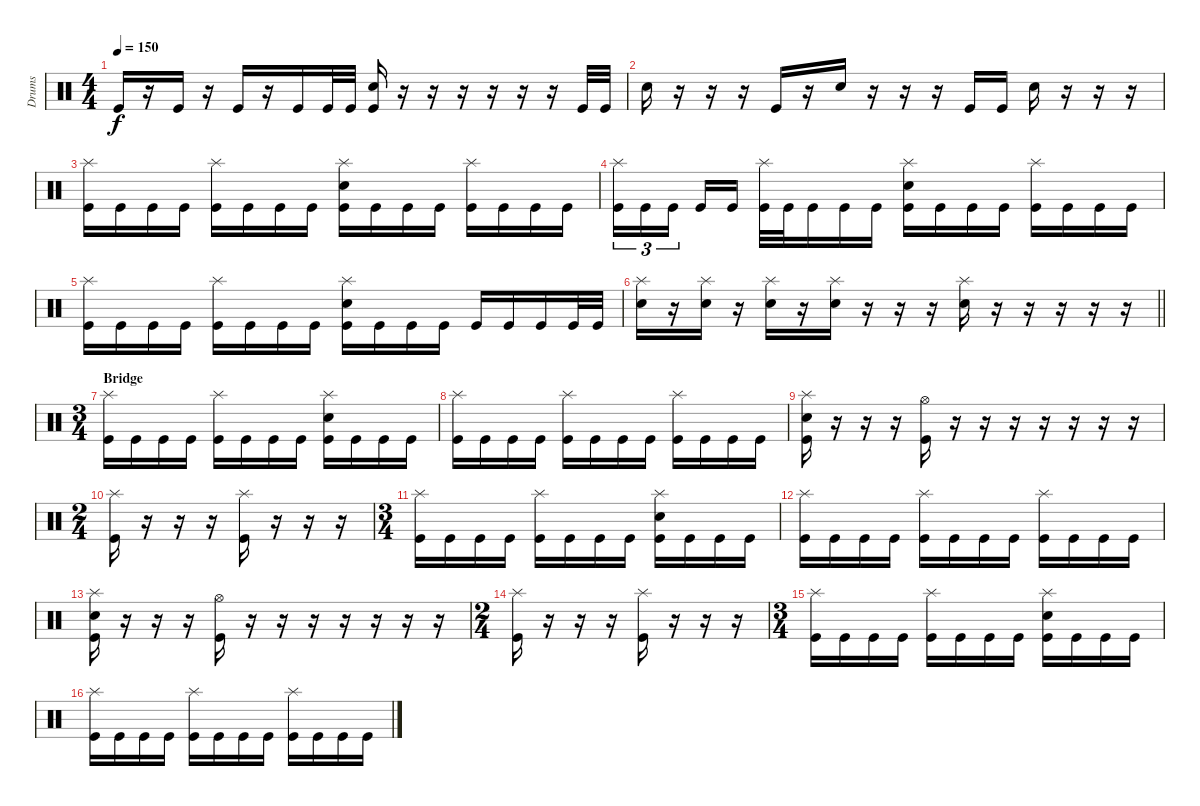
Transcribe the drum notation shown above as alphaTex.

\track ("Drums" "Drums") {instrument percussion}
\staff
\articulation defaults
\ts (4 4)
\tempo 150
\clef neutral
\ks c "Kick (hit)".16{dy f}
r.16 "Kick (hit)".16 r.16 "Kick (hit)".16 r.16 "Kick (hit)".16 "Kick (hit)".32 "Kick (hit)".32 ("Snare (hit) 2" "Kick (hit)").16 r.16 r.16 r.16 r.16 r.16 r.16 "Kick (hit)".32 "Kick (hit)".32 |
"Snare (hit) 2".16 r.16 r.16 r.16 "Kick (hit)".16 r.16 "Snare (hit) 2".16 r.16 r.16 r.16 "Kick (hit)".16 "Kick (hit)".16 "Snare (hit) 2".16 r.16 r.16 r.16 |
("Splash (hit)" "Kick (hit)").16 "Kick (hit)".16 "Kick (hit)".16 "Kick (hit)".16 ("Splash (hit)" "Kick (hit)").16 "Kick (hit)".16 "Kick (hit)".16 "Kick (hit)".16 ("Splash (hit)" "Snare (hit) 2" "Kick (hit)").16 "Kick (hit)".16 "Kick (hit)".16 "Kick (hit)".16 ("Splash (hit)" "Kick (hit)").16 "Kick (hit)".16 "Kick (hit)".16 "Kick (hit)".16 |
("Splash (hit)" "Kick (hit)").16{tu (3 2)} "Kick (hit)".16{tu (3 2)} "Kick (hit)".16{tu (3 2) beam splitsecondary} "Kick (hit)".16 "Kick (hit)".16 ("Splash (hit)" "Kick (hit)").32 "Kick (hit)".32 "Kick (hit)".16 "Kick (hit)".16 "Kick (hit)".16 ("Splash (hit)" "Snare (hit) 2" "Kick (hit)").16 "Kick (hit)".16 "Kick (hit)".16 "Kick (hit)".16 ("Splash (hit)" "Kick (hit)").16 "Kick (hit)".16 "Kick (hit)".16 "Kick (hit)".16 |
("Splash (hit)" "Kick (hit)").16 "Kick (hit)".16 "Kick (hit)".16 "Kick (hit)".16 ("Splash (hit)" "Kick (hit)").16 "Kick (hit)".16 "Kick (hit)".16 "Kick (hit)".16 ("Splash (hit)" "Snare (hit) 2" "Kick (hit)").16 "Kick (hit)".16 "Kick (hit)".16 "Kick (hit)".16 "Kick (hit)".16 "Kick (hit)".16 "Kick (hit)".16 "Kick (hit)".32 "Kick (hit)".32 |
\barLineRight lightlight
("Splash (hit)" "Snare (hit) 2").16 r.16 ("Splash (hit)" "Snare (hit) 2").16 r.16 ("Splash (hit)" "Snare (hit) 2").16 r.16 ("Splash (hit)" "Snare (hit) 2").16 r.16 r.16 r.16 ("Splash (hit)" "Snare (hit) 2").16 r.16 r.16 r.16 r.16 r.16 |
\ts (3 4)
\section ("" "Bridge")
("Splash (hit)" "Kick (hit)").16 "Kick (hit)".16 "Kick (hit)".16 "Kick (hit)".16 ("Splash (hit)" "Kick (hit)").16 "Kick (hit)".16 "Kick (hit)".16 "Kick (hit)".16 ("Splash (hit)" "Snare (hit) 2" "Kick (hit)").16 "Kick (hit)".16 "Kick (hit)".16 "Kick (hit)".16 |
("Splash (hit)" "Kick (hit)").16 "Kick (hit)".16 "Kick (hit)".16 "Kick (hit)".16 ("Splash (hit)" "Kick (hit)").16 "Kick (hit)".16 "Kick (hit)".16 "Kick (hit)".16 ("Splash (hit)" "Kick (hit)").16 "Kick (hit)".16 "Kick (hit)".16 "Kick (hit)".16 |
("Splash (hit)" "Snare (hit) 2" "Kick (hit)").16 r.16 r.16 r.16 ("Hi-Hat (open)" "Kick (hit)").16 r.16 r.16 r.16 r.16 r.16 r.16 r.16 |
\ts (2 4)
("Splash (hit)" "Kick (hit)").16 r.16 r.16 r.16 ("Splash (hit)" "Kick (hit)").16 r.16 r.16 r.16 |
\ts (3 4)
("Splash (hit)" "Kick (hit)").16 "Kick (hit)".16 "Kick (hit)".16 "Kick (hit)".16 ("Splash (hit)" "Kick (hit)").16 "Kick (hit)".16 "Kick (hit)".16 "Kick (hit)".16 ("Splash (hit)" "Snare (hit) 2" "Kick (hit)").16 "Kick (hit)".16 "Kick (hit)".16 "Kick (hit)".16 |
("Splash (hit)" "Kick (hit)").16 "Kick (hit)".16 "Kick (hit)".16 "Kick (hit)".16 ("Splash (hit)" "Kick (hit)").16 "Kick (hit)".16 "Kick (hit)".16 "Kick (hit)".16 ("Splash (hit)" "Kick (hit)").16 "Kick (hit)".16 "Kick (hit)".16 "Kick (hit)".16 |
("Splash (hit)" "Snare (hit) 2" "Kick (hit)").16 r.16 r.16 r.16 ("Hi-Hat (open)" "Kick (hit)").16 r.16 r.16 r.16 r.16 r.16 r.16 r.16 |
\ts (2 4)
("Splash (hit)" "Kick (hit)").16 r.16 r.16 r.16 ("Splash (hit)" "Kick (hit)").16 r.16 r.16 r.16 |
\ts (3 4)
("Splash (hit)" "Kick (hit)").16 "Kick (hit)".16 "Kick (hit)".16 "Kick (hit)".16 ("Splash (hit)" "Kick (hit)").16 "Kick (hit)".16 "Kick (hit)".16 "Kick (hit)".16 ("Splash (hit)" "Snare (hit) 2" "Kick (hit)").16 "Kick (hit)".16 "Kick (hit)".16 "Kick (hit)".16 |
("Splash (hit)" "Kick (hit)").16 "Kick (hit)".16 "Kick (hit)".16 "Kick (hit)".16 ("Splash (hit)" "Kick (hit)").16 "Kick (hit)".16 "Kick (hit)".16 "Kick (hit)".16 ("Splash (hit)" "Kick (hit)").16 "Kick (hit)".16 "Kick (hit)".16 "Kick (hit)".16
